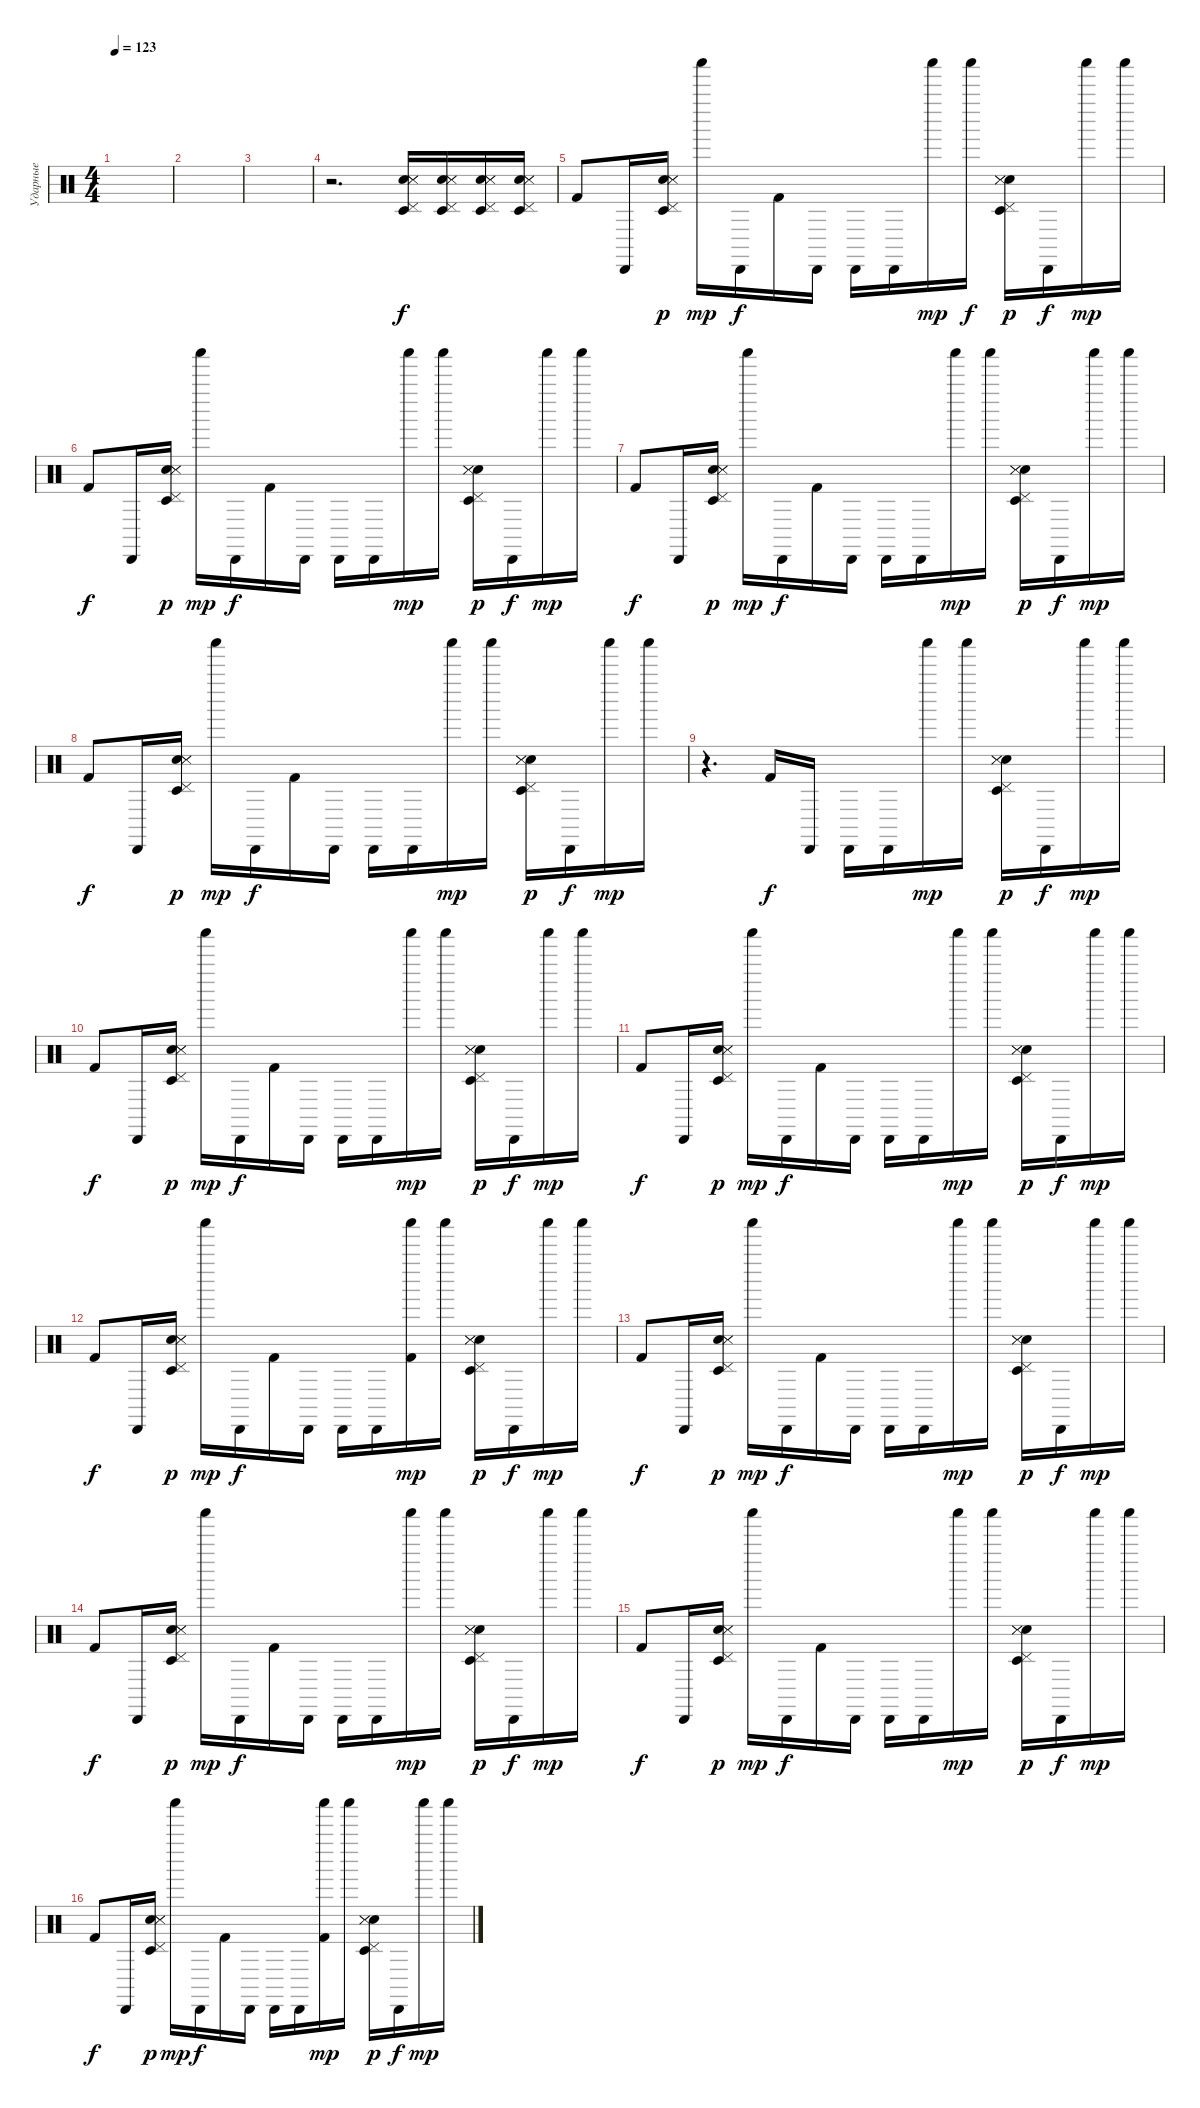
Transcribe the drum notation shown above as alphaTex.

\track ("Ударные" "Ударные") {instrument percussion}
\staff {score}
\articulation defaults
\ts (4 4)
\tempo 123
\clef neutral
\ks c
|
|
|
r.2{d} ("Hand Clap (hit)" "Metronome (hit)" "Snare (side stick) 3" "Timbale low (hit)" "Pedal Hi-Hat (hit)").16 ("Hand Clap (hit)" "Metronome (hit)" "Snare (side stick) 3" "Timbale low (hit)" "Pedal Hi-Hat (hit)").16 ("Hand Clap (hit)" "Metronome (hit)" "Snare (side stick) 3" "Timbale low (hit)" "Pedal Hi-Hat (hit)").16 ("Hand Clap (hit)" "Metronome (hit)" "Snare (side stick) 3" "Timbale low (hit)" "Pedal Hi-Hat (hit)").16 |
"Kick (hit) 2".8{dy f} "Cabasa (hit)".16 ("Hand Clap (hit)" "Metronome (hit)" "Snare (side stick) 3" "Timbale low (hit)" "Pedal Hi-Hat (hit)").16{dy p} "Shaker (hit)".16{dy mp} "Cabasa (hit)".16{dy f} "Kick (hit) 2".16 "Cabasa (hit)".16 "Cabasa (hit)".16 "Cabasa (hit)".16 "Shaker (hit)".16{dy mp} "Shaker (hit)".16{dy f} ("Hand Clap (hit)" "Metronome (hit)" "Snare (side stick) 3" "Timbale low (hit)" "Pedal Hi-Hat (hit)").16{dy p} "Cabasa (hit)".16{dy f} "Shaker (hit)".16{dy mp} "Shaker (hit)".16 |
"Kick (hit) 2".8{dy f} "Cabasa (hit)".16 ("Hand Clap (hit)" "Metronome (hit)" "Snare (side stick) 3" "Timbale low (hit)" "Pedal Hi-Hat (hit)").16{dy p} "Shaker (hit)".16{dy mp} "Cabasa (hit)".16{dy f} "Kick (hit) 2".16 "Cabasa (hit)".16 "Cabasa (hit)".16 "Cabasa (hit)".16 "Shaker (hit)".16{dy mp} "Shaker (hit)".16 ("Hand Clap (hit)" "Metronome (hit)" "Snare (side stick) 3" "Timbale low (hit)" "Pedal Hi-Hat (hit)").16{dy p} "Cabasa (hit)".16{dy f} "Shaker (hit)".16{dy mp} "Shaker (hit)".16 |
"Kick (hit) 2".8{dy f} "Cabasa (hit)".16 ("Hand Clap (hit)" "Metronome (hit)" "Snare (side stick) 3" "Timbale low (hit)" "Pedal Hi-Hat (hit)").16{dy p} "Shaker (hit)".16{dy mp} "Cabasa (hit)".16{dy f} "Kick (hit) 2".16 "Cabasa (hit)".16 "Cabasa (hit)".16 "Cabasa (hit)".16 "Shaker (hit)".16{dy mp} "Shaker (hit)".16 ("Hand Clap (hit)" "Metronome (hit)" "Snare (side stick) 3" "Timbale low (hit)" "Pedal Hi-Hat (hit)").16{dy p} "Cabasa (hit)".16{dy f} "Shaker (hit)".16{dy mp} "Shaker (hit)".16 |
"Kick (hit) 2".8{dy f} "Cabasa (hit)".16 ("Hand Clap (hit)" "Metronome (hit)" "Snare (side stick) 3" "Timbale low (hit)" "Pedal Hi-Hat (hit)").16{dy p} "Shaker (hit)".16{dy mp} "Cabasa (hit)".16{dy f} "Kick (hit) 2".16 "Cabasa (hit)".16 "Cabasa (hit)".16 "Cabasa (hit)".16 "Shaker (hit)".16{dy mp} "Shaker (hit)".16 ("Hand Clap (hit)" "Metronome (hit)" "Snare (side stick) 3" "Timbale low (hit)" "Pedal Hi-Hat (hit)").16{dy p} "Cabasa (hit)".16{dy f} "Shaker (hit)".16{dy mp} "Shaker (hit)".16 |
r.4{d} "Kick (hit) 2".16{dy f} "Cabasa (hit)".16 "Cabasa (hit)".16 "Cabasa (hit)".16 "Shaker (hit)".16{dy mp} "Shaker (hit)".16 ("Hand Clap (hit)" "Metronome (hit)" "Snare (side stick) 3" "Timbale low (hit)" "Pedal Hi-Hat (hit)").16{dy p} "Cabasa (hit)".16{dy f} "Shaker (hit)".16{dy mp} "Shaker (hit)".16 |
"Kick (hit) 2".8{dy f} "Cabasa (hit)".16 ("Hand Clap (hit)" "Metronome (hit)" "Snare (side stick) 3" "Timbale low (hit)" "Pedal Hi-Hat (hit)").16{dy p} "Shaker (hit)".16{dy mp} "Cabasa (hit)".16{dy f} "Kick (hit) 2".16 "Cabasa (hit)".16 "Cabasa (hit)".16 "Cabasa (hit)".16 "Shaker (hit)".16{dy mp} "Shaker (hit)".16 ("Hand Clap (hit)" "Metronome (hit)" "Snare (side stick) 3" "Timbale low (hit)" "Pedal Hi-Hat (hit)").16{dy p} "Cabasa (hit)".16{dy f} "Shaker (hit)".16{dy mp} "Shaker (hit)".16 |
"Kick (hit) 2".8{dy f} "Cabasa (hit)".16 ("Hand Clap (hit)" "Metronome (hit)" "Snare (side stick) 3" "Timbale low (hit)" "Pedal Hi-Hat (hit)").16{dy p} "Shaker (hit)".16{dy mp} "Cabasa (hit)".16{dy f} "Kick (hit) 2".16 "Cabasa (hit)".16 "Cabasa (hit)".16 "Cabasa (hit)".16 "Shaker (hit)".16{dy mp} "Shaker (hit)".16 ("Hand Clap (hit)" "Metronome (hit)" "Snare (side stick) 3" "Timbale low (hit)" "Pedal Hi-Hat (hit)").16{dy p} "Cabasa (hit)".16{dy f} "Shaker (hit)".16{dy mp} "Shaker (hit)".16 |
"Kick (hit) 2".8{dy f} "Cabasa (hit)".16 ("Hand Clap (hit)" "Metronome (hit)" "Snare (side stick) 3" "Timbale low (hit)" "Pedal Hi-Hat (hit)").16{dy p} "Shaker (hit)".16{dy mp} "Cabasa (hit)".16{dy f} "Kick (hit) 2".16 "Cabasa (hit)".16 "Cabasa (hit)".16 "Cabasa (hit)".16 ("Shaker (hit)" "Kick (hit) 2").16{dy mp} "Shaker (hit)".16 ("Hand Clap (hit)" "Metronome (hit)" "Snare (side stick) 3" "Timbale low (hit)" "Pedal Hi-Hat (hit)").16{dy p} "Cabasa (hit)".16{dy f} "Shaker (hit)".16{dy mp} "Shaker (hit)".16 |
"Kick (hit) 2".8{dy f} "Cabasa (hit)".16 ("Hand Clap (hit)" "Metronome (hit)" "Snare (side stick) 3" "Timbale low (hit)" "Pedal Hi-Hat (hit)").16{dy p} "Shaker (hit)".16{dy mp} "Cabasa (hit)".16{dy f} "Kick (hit) 2".16 "Cabasa (hit)".16 "Cabasa (hit)".16 "Cabasa (hit)".16 "Shaker (hit)".16{dy mp} "Shaker (hit)".16 ("Hand Clap (hit)" "Metronome (hit)" "Snare (side stick) 3" "Timbale low (hit)" "Pedal Hi-Hat (hit)").16{dy p} "Cabasa (hit)".16{dy f} "Shaker (hit)".16{dy mp} "Shaker (hit)".16 |
"Kick (hit) 2".8{dy f} "Cabasa (hit)".16 ("Hand Clap (hit)" "Metronome (hit)" "Snare (side stick) 3" "Timbale low (hit)" "Pedal Hi-Hat (hit)").16{dy p} "Shaker (hit)".16{dy mp} "Cabasa (hit)".16{dy f} "Kick (hit) 2".16 "Cabasa (hit)".16 "Cabasa (hit)".16 "Cabasa (hit)".16 "Shaker (hit)".16{dy mp} "Shaker (hit)".16 ("Hand Clap (hit)" "Metronome (hit)" "Snare (side stick) 3" "Timbale low (hit)" "Pedal Hi-Hat (hit)").16{dy p} "Cabasa (hit)".16{dy f} "Shaker (hit)".16{dy mp} "Shaker (hit)".16 |
"Kick (hit) 2".8{dy f} "Cabasa (hit)".16 ("Hand Clap (hit)" "Metronome (hit)" "Snare (side stick) 3" "Timbale low (hit)" "Pedal Hi-Hat (hit)").16{dy p} "Shaker (hit)".16{dy mp} "Cabasa (hit)".16{dy f} "Kick (hit) 2".16 "Cabasa (hit)".16 "Cabasa (hit)".16 "Cabasa (hit)".16 "Shaker (hit)".16{dy mp} "Shaker (hit)".16 ("Hand Clap (hit)" "Metronome (hit)" "Snare (side stick) 3" "Timbale low (hit)" "Pedal Hi-Hat (hit)").16{dy p} "Cabasa (hit)".16{dy f} "Shaker (hit)".16{dy mp} "Shaker (hit)".16 |
"Kick (hit) 2".8{dy f} "Cabasa (hit)".16 ("Hand Clap (hit)" "Metronome (hit)" "Snare (side stick) 3" "Timbale low (hit)" "Pedal Hi-Hat (hit)").16{dy p} "Shaker (hit)".16{dy mp} "Cabasa (hit)".16{dy f} "Kick (hit) 2".16 "Cabasa (hit)".16 "Cabasa (hit)".16 "Cabasa (hit)".16 ("Shaker (hit)" "Kick (hit) 2").16{dy mp} "Shaker (hit)".16 ("Hand Clap (hit)" "Metronome (hit)" "Snare (side stick) 3" "Timbale low (hit)" "Pedal Hi-Hat (hit)").16{dy p} "Cabasa (hit)".16{dy f} "Shaker (hit)".16{dy mp} "Shaker (hit)".16
